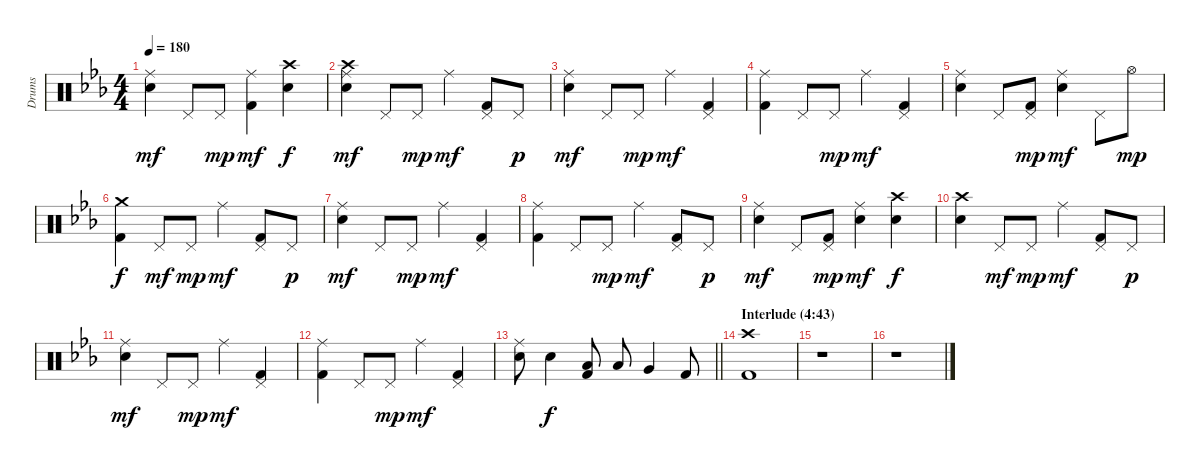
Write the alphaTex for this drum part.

\track ("Drums" "Drums") {instrument percussion}
\staff {score}
\articulation defaults
\ts (4 4)
\tempo 180
\clef neutral
\ks eb
("Ride (middle)" "Electric Snare (hit)").4{dy mf} "Pedal Hi-Hat (hit)".8 "Pedal Hi-Hat (hit)".8{dy mp} ("Ride (middle)" "Kick (hit) 2").4{dy mf} ("Crash high (hit)" "Electric Snare (hit)").4{dy f} |
("Crash high (hit)" "Ride (middle)" "Electric Snare (hit)").4{dy mf} "Pedal Hi-Hat (hit)".8 "Pedal Hi-Hat (hit)".8{dy mp} "Ride (middle)".4{dy mf} ("Pedal Hi-Hat (hit)" "Kick (hit) 2").8 "Pedal Hi-Hat (hit)".8{dy p} |
("Ride (middle)" "Electric Snare (hit)").4{dy mf} "Pedal Hi-Hat (hit)".8 "Pedal Hi-Hat (hit)".8{dy mp} "Ride (middle)".4{dy mf} ("Pedal Hi-Hat (hit)" "Kick (hit) 2").4 |
("Ride (middle)" "Kick (hit) 2").4 "Pedal Hi-Hat (hit)".8 "Pedal Hi-Hat (hit)".8{dy mp} "Ride (middle)".4{dy mf} ("Pedal Hi-Hat (hit)" "Kick (hit) 2").4 |
("Ride (middle)" "Electric Snare (hit)").4 "Pedal Hi-Hat (hit)".8 ("Pedal Hi-Hat (hit)" "Kick (hit) 2").8{dy mp} ("Ride (middle)" "Electric Snare (hit)").4{dy mf} "Pedal Hi-Hat (hit)".8 "Hi-Hat (open)".8{dy mp} |
("Crash medium (hit)" "Kick (hit) 2").4{dy f} "Pedal Hi-Hat (hit)".8{dy mf} "Pedal Hi-Hat (hit)".8{dy mp} "Ride (middle)".4{dy mf} ("Pedal Hi-Hat (hit)" "Kick (hit) 2").8 "Pedal Hi-Hat (hit)".8{dy p} |
("Ride (middle)" "Electric Snare (hit)").4{dy mf} "Pedal Hi-Hat (hit)".8 "Pedal Hi-Hat (hit)".8{dy mp} "Ride (middle)".4{dy mf} ("Pedal Hi-Hat (hit)" "Kick (hit) 2").4 |
("Ride (middle)" "Kick (hit) 2").4 "Pedal Hi-Hat (hit)".8 "Pedal Hi-Hat (hit)".8{dy mp} "Ride (middle)".4{dy mf} ("Pedal Hi-Hat (hit)" "Kick (hit) 2").8 "Pedal Hi-Hat (hit)".8{dy p} |
("Ride (middle)" "Electric Snare (hit)").4{dy mf} "Pedal Hi-Hat (hit)".8 ("Pedal Hi-Hat (hit)" "Kick (hit) 2").8{dy mp} ("Ride (middle)" "Electric Snare (hit)").4{dy mf} ("Crash high (hit)" "Electric Snare (hit)").4{dy f} |
("Crash high (hit)" "Electric Snare (hit)").4 "Pedal Hi-Hat (hit)".8{dy mf} "Pedal Hi-Hat (hit)".8{dy mp} "Ride (middle)".4{dy mf} ("Pedal Hi-Hat (hit)" "Kick (hit) 2").8 "Pedal Hi-Hat (hit)".8{dy p} |
("Ride (middle)" "Electric Snare (hit)").4{dy mf} "Pedal Hi-Hat (hit)".8 "Pedal Hi-Hat (hit)".8{dy mp} "Ride (middle)".4{dy mf} ("Pedal Hi-Hat (hit)" "Kick (hit) 2").4 |
("Ride (middle)" "Kick (hit) 2").4 "Pedal Hi-Hat (hit)".8 "Pedal Hi-Hat (hit)".8{dy mp} "Ride (middle)".4{dy mf} ("Pedal Hi-Hat (hit)" "Kick (hit) 2").4 |
\barLineRight lightlight
("Ride (middle)" "Electric Snare (hit)").8 "Electric Snare (hit)".4{dy f} ("Low Floor Tom (hit)" "Kick (hit) 2").8 "Low Tom (hit)".8 "Very Low Tom (hit)".4 "Kick (hit) 2".8 |
\section ("" "Interlude (4:43)")
("Crash high (hit)" "Kick (hit) 2").1 |
r.1 |
r.1
